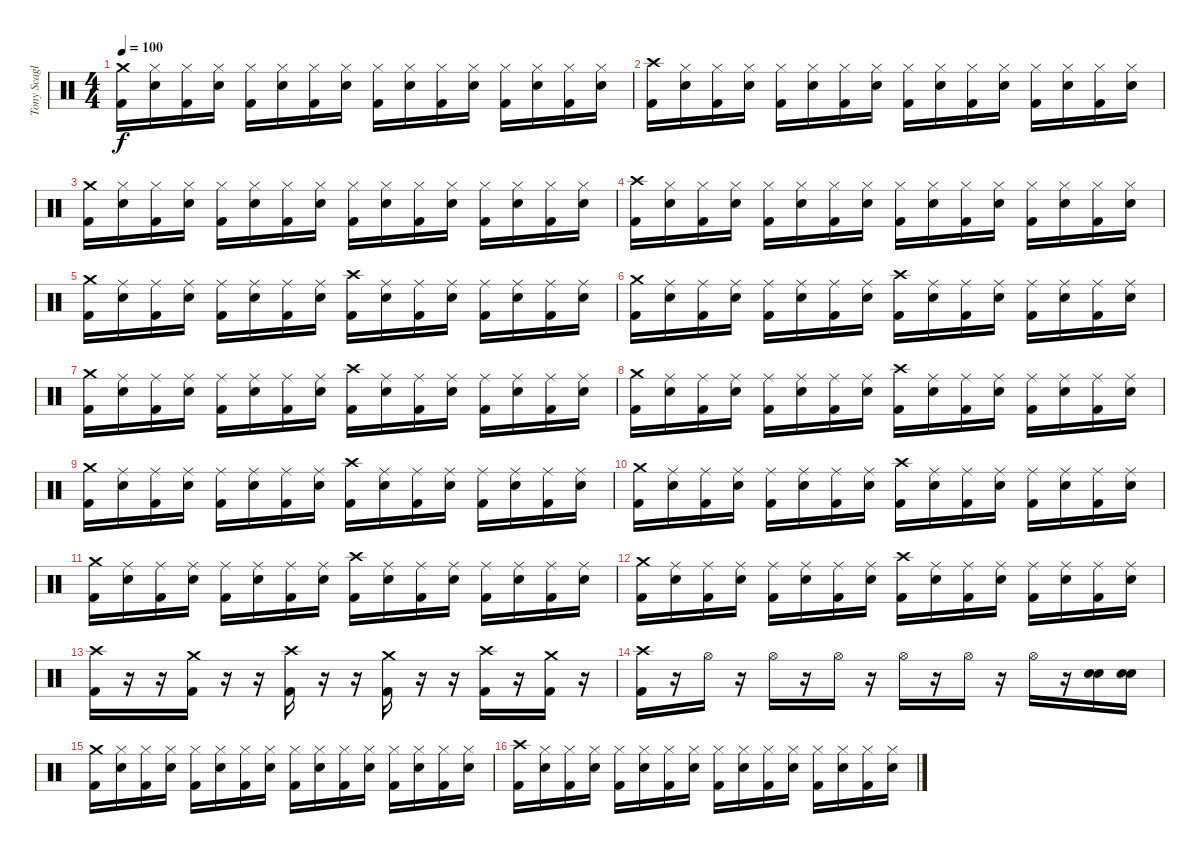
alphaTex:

\track ("Tony Scaglione" "Tony Scagl") {instrument percussion}
\staff {score}
\articulation defaults
\ts (4 4)
\tempo 100
\clef neutral
\ks c
("Crash medium (hit)" "Kick (hit) 2").16{dy f} ("Hi-Hat (closed)" "Snare (hit) 2").16 ("Hi-Hat (closed)" "Kick (hit) 2").16 ("Hi-Hat (closed)" "Snare (hit) 2").16 ("Hi-Hat (closed)" "Kick (hit) 2").16 ("Hi-Hat (closed)" "Snare (hit) 2").16 ("Hi-Hat (closed)" "Kick (hit) 2").16 ("Hi-Hat (closed)" "Snare (hit) 2").16 ("Hi-Hat (closed)" "Kick (hit) 2").16 ("Hi-Hat (closed)" "Snare (hit) 2").16 ("Hi-Hat (closed)" "Kick (hit) 2").16 ("Hi-Hat (closed)" "Snare (hit) 2").16 ("Hi-Hat (closed)" "Kick (hit) 2").16 ("Hi-Hat (closed)" "Snare (hit) 2").16 ("Hi-Hat (closed)" "Kick (hit) 2").16 ("Hi-Hat (closed)" "Snare (hit) 2").16 |
("Crash high (hit)" "Kick (hit) 2").16 ("Hi-Hat (closed)" "Snare (hit) 2").16 ("Hi-Hat (closed)" "Kick (hit) 2").16 ("Hi-Hat (closed)" "Snare (hit) 2").16 ("Hi-Hat (closed)" "Kick (hit) 2").16 ("Hi-Hat (closed)" "Snare (hit) 2").16 ("Hi-Hat (closed)" "Kick (hit) 2").16 ("Hi-Hat (closed)" "Snare (hit) 2").16 ("Hi-Hat (closed)" "Kick (hit) 2").16 ("Hi-Hat (closed)" "Snare (hit) 2").16 ("Hi-Hat (closed)" "Kick (hit) 2").16 ("Hi-Hat (closed)" "Snare (hit) 2").16 ("Hi-Hat (closed)" "Kick (hit) 2").16 ("Hi-Hat (closed)" "Snare (hit) 2").16 ("Hi-Hat (closed)" "Kick (hit) 2").16 ("Hi-Hat (closed)" "Snare (hit) 2").16 |
("Crash medium (hit)" "Kick (hit) 2").16 ("Hi-Hat (closed)" "Snare (hit) 2").16 ("Hi-Hat (closed)" "Kick (hit) 2").16 ("Hi-Hat (closed)" "Snare (hit) 2").16 ("Hi-Hat (closed)" "Kick (hit) 2").16 ("Hi-Hat (closed)" "Snare (hit) 2").16 ("Hi-Hat (closed)" "Kick (hit) 2").16 ("Hi-Hat (closed)" "Snare (hit) 2").16 ("Hi-Hat (closed)" "Kick (hit) 2").16 ("Hi-Hat (closed)" "Snare (hit) 2").16 ("Hi-Hat (closed)" "Kick (hit) 2").16 ("Hi-Hat (closed)" "Snare (hit) 2").16 ("Hi-Hat (closed)" "Kick (hit) 2").16 ("Hi-Hat (closed)" "Snare (hit) 2").16 ("Hi-Hat (closed)" "Kick (hit) 2").16 ("Hi-Hat (closed)" "Snare (hit) 2").16 |
("Crash high (hit)" "Kick (hit) 2").16 ("Hi-Hat (closed)" "Snare (hit) 2").16 ("Hi-Hat (closed)" "Kick (hit) 2").16 ("Hi-Hat (closed)" "Snare (hit) 2").16 ("Hi-Hat (closed)" "Kick (hit) 2").16 ("Hi-Hat (closed)" "Snare (hit) 2").16 ("Hi-Hat (closed)" "Kick (hit) 2").16 ("Hi-Hat (closed)" "Snare (hit) 2").16 ("Hi-Hat (closed)" "Kick (hit) 2").16 ("Hi-Hat (closed)" "Snare (hit) 2").16 ("Hi-Hat (closed)" "Kick (hit) 2").16 ("Hi-Hat (closed)" "Snare (hit) 2").16 ("Hi-Hat (closed)" "Kick (hit) 2").16 ("Hi-Hat (closed)" "Snare (hit) 2").16 ("Hi-Hat (closed)" "Kick (hit) 2").16 ("Hi-Hat (closed)" "Snare (hit) 2").16 |
("Crash medium (hit)" "Kick (hit) 2").16 ("Ride (middle)" "Snare (hit) 2").16 ("Ride (middle)" "Kick (hit) 2").16 ("Ride (middle)" "Snare (hit) 2").16 ("Ride (middle)" "Kick (hit) 2").16 ("Ride (middle)" "Snare (hit) 2").16 ("Ride (middle)" "Kick (hit) 2").16 ("Ride (middle)" "Snare (hit) 2").16 ("Crash high (hit)" "Kick (hit) 2").16 ("Ride (middle)" "Snare (hit) 2").16 ("Ride (middle)" "Kick (hit) 2").16 ("Ride (middle)" "Snare (hit) 2").16 ("Ride (middle)" "Kick (hit) 2").16 ("Ride (middle)" "Snare (hit) 2").16 ("Ride (middle)" "Kick (hit) 2").16 ("Ride (middle)" "Snare (hit) 2").16 |
("Crash medium (hit)" "Kick (hit) 2").16 ("Ride (middle)" "Snare (hit) 2").16 ("Ride (middle)" "Kick (hit) 2").16 ("Ride (middle)" "Snare (hit) 2").16 ("Ride (middle)" "Kick (hit) 2").16 ("Ride (middle)" "Snare (hit) 2").16 ("Ride (middle)" "Kick (hit) 2").16 ("Ride (middle)" "Snare (hit) 2").16 ("Crash high (hit)" "Kick (hit) 2").16 ("Ride (middle)" "Snare (hit) 2").16 ("Ride (middle)" "Kick (hit) 2").16 ("Ride (middle)" "Snare (hit) 2").16 ("Ride (middle)" "Kick (hit) 2").16 ("Ride (middle)" "Snare (hit) 2").16 ("Ride (middle)" "Kick (hit) 2").16 ("Ride (middle)" "Snare (hit) 2").16 |
("Crash medium (hit)" "Kick (hit) 2").16 ("Ride (middle)" "Snare (hit) 2").16 ("Ride (middle)" "Kick (hit) 2").16 ("Ride (middle)" "Snare (hit) 2").16 ("Ride (middle)" "Kick (hit) 2").16 ("Ride (middle)" "Snare (hit) 2").16 ("Ride (middle)" "Kick (hit) 2").16 ("Ride (middle)" "Snare (hit) 2").16 ("Crash high (hit)" "Kick (hit) 2").16 ("Ride (middle)" "Snare (hit) 2").16 ("Ride (middle)" "Kick (hit) 2").16 ("Ride (middle)" "Snare (hit) 2").16 ("Ride (middle)" "Kick (hit) 2").16 ("Ride (middle)" "Snare (hit) 2").16 ("Ride (middle)" "Kick (hit) 2").16 ("Ride (middle)" "Snare (hit) 2").16 |
("Crash medium (hit)" "Kick (hit) 2").16 ("Ride (middle)" "Snare (hit) 2").16 ("Ride (middle)" "Kick (hit) 2").16 ("Ride (middle)" "Snare (hit) 2").16 ("Ride (middle)" "Kick (hit) 2").16 ("Ride (middle)" "Snare (hit) 2").16 ("Ride (middle)" "Kick (hit) 2").16 ("Ride (middle)" "Snare (hit) 2").16 ("Crash high (hit)" "Kick (hit) 2").16 ("Ride (middle)" "Snare (hit) 2").16 ("Ride (middle)" "Kick (hit) 2").16 ("Ride (middle)" "Snare (hit) 2").16 ("Ride (middle)" "Kick (hit) 2").16 ("Ride (middle)" "Snare (hit) 2").16 ("Ride (middle)" "Kick (hit) 2").16 ("Ride (middle)" "Snare (hit) 2").16 |
("Crash medium (hit)" "Kick (hit) 2").16 ("Ride (middle)" "Snare (hit) 2").16 ("Ride (middle)" "Kick (hit) 2").16 ("Ride (middle)" "Snare (hit) 2").16 ("Ride (middle)" "Kick (hit) 2").16 ("Ride (middle)" "Snare (hit) 2").16 ("Ride (middle)" "Kick (hit) 2").16 ("Ride (middle)" "Snare (hit) 2").16 ("Crash high (hit)" "Kick (hit) 2").16 ("Ride (middle)" "Snare (hit) 2").16 ("Ride (middle)" "Kick (hit) 2").16 ("Ride (middle)" "Snare (hit) 2").16 ("Ride (middle)" "Kick (hit) 2").16 ("Ride (middle)" "Snare (hit) 2").16 ("Ride (middle)" "Kick (hit) 2").16 ("Ride (middle)" "Snare (hit) 2").16 |
("Crash medium (hit)" "Kick (hit) 2").16 ("Ride (middle)" "Snare (hit) 2").16 ("Ride (middle)" "Kick (hit) 2").16 ("Ride (middle)" "Snare (hit) 2").16 ("Ride (middle)" "Kick (hit) 2").16 ("Ride (middle)" "Snare (hit) 2").16 ("Ride (middle)" "Kick (hit) 2").16 ("Ride (middle)" "Snare (hit) 2").16 ("Crash high (hit)" "Kick (hit) 2").16 ("Ride (middle)" "Snare (hit) 2").16 ("Ride (middle)" "Kick (hit) 2").16 ("Ride (middle)" "Snare (hit) 2").16 ("Ride (middle)" "Kick (hit) 2").16 ("Ride (middle)" "Snare (hit) 2").16 ("Ride (middle)" "Kick (hit) 2").16 ("Ride (middle)" "Snare (hit) 2").16 |
("Crash medium (hit)" "Kick (hit) 2").16 ("Ride (middle)" "Snare (hit) 2").16 ("Ride (middle)" "Kick (hit) 2").16 ("Ride (middle)" "Snare (hit) 2").16 ("Ride (middle)" "Kick (hit) 2").16 ("Ride (middle)" "Snare (hit) 2").16 ("Ride (middle)" "Kick (hit) 2").16 ("Ride (middle)" "Snare (hit) 2").16 ("Crash high (hit)" "Kick (hit) 2").16 ("Ride (middle)" "Snare (hit) 2").16 ("Ride (middle)" "Kick (hit) 2").16 ("Ride (middle)" "Snare (hit) 2").16 ("Ride (middle)" "Kick (hit) 2").16 ("Ride (middle)" "Snare (hit) 2").16 ("Ride (middle)" "Kick (hit) 2").16 ("Ride (middle)" "Snare (hit) 2").16 |
("Crash medium (hit)" "Kick (hit) 2").16 ("Ride (middle)" "Snare (hit) 2").16 ("Ride (middle)" "Kick (hit) 2").16 ("Ride (middle)" "Snare (hit) 2").16 ("Ride (middle)" "Kick (hit) 2").16 ("Ride (middle)" "Snare (hit) 2").16 ("Ride (middle)" "Kick (hit) 2").16 ("Ride (middle)" "Snare (hit) 2").16 ("Crash high (hit)" "Kick (hit) 2").16 ("Ride (middle)" "Snare (hit) 2").16 ("Ride (middle)" "Kick (hit) 2").16 ("Ride (middle)" "Snare (hit) 2").16 ("Ride (middle)" "Kick (hit) 2").16 ("Ride (middle)" "Snare (hit) 2").16 ("Ride (middle)" "Kick (hit) 2").16 ("Ride (middle)" "Snare (hit) 2").16 |
("Crash high (hit)" "Kick (hit) 2").16 r.16 r.16 ("Crash medium (hit)" "Kick (hit) 2").16 r.16 r.16 ("Crash high (hit)" "Kick (hit) 2").16 r.16 r.16 ("Crash medium (hit)" "Kick (hit) 2").16 r.16 r.16 ("Crash high (hit)" "Kick (hit) 2").16 r.16 ("Crash medium (hit)" "Kick (hit) 2").16 r.16 |
("Crash high (hit)" "Kick (hit) 2").16 r.16 "Hi-Hat (open)".16 r.16 "Hi-Hat (open)".16 r.16 "Hi-Hat (open)".16 r.16 "Hi-Hat (open)".16 r.16 "Hi-Hat (open)".16 r.16 "Hi-Hat (open)".16 r.16 ("Electric Snare (hit)" "Snare (hit) 2").16 ("Electric Snare (hit)" "Snare (hit) 2").16 |
("Crash medium (hit)" "Kick (hit) 2").16 ("Hi-Hat (closed)" "Snare (hit) 2").16 ("Hi-Hat (closed)" "Kick (hit) 2").16 ("Hi-Hat (closed)" "Snare (hit) 2").16 ("Hi-Hat (closed)" "Kick (hit) 2").16 ("Hi-Hat (closed)" "Snare (hit) 2").16 ("Hi-Hat (closed)" "Kick (hit) 2").16 ("Hi-Hat (closed)" "Snare (hit) 2").16 ("Hi-Hat (closed)" "Kick (hit) 2").16 ("Hi-Hat (closed)" "Snare (hit) 2").16 ("Hi-Hat (closed)" "Kick (hit) 2").16 ("Hi-Hat (closed)" "Snare (hit) 2").16 ("Hi-Hat (closed)" "Kick (hit) 2").16 ("Hi-Hat (closed)" "Snare (hit) 2").16 ("Hi-Hat (closed)" "Kick (hit) 2").16 ("Hi-Hat (closed)" "Snare (hit) 2").16 |
("Crash high (hit)" "Kick (hit) 2").16 ("Hi-Hat (closed)" "Snare (hit) 2").16 ("Hi-Hat (closed)" "Kick (hit) 2").16 ("Hi-Hat (closed)" "Snare (hit) 2").16 ("Hi-Hat (closed)" "Kick (hit) 2").16 ("Hi-Hat (closed)" "Snare (hit) 2").16 ("Hi-Hat (closed)" "Kick (hit) 2").16 ("Hi-Hat (closed)" "Snare (hit) 2").16 ("Hi-Hat (closed)" "Kick (hit) 2").16 ("Hi-Hat (closed)" "Snare (hit) 2").16 ("Hi-Hat (closed)" "Kick (hit) 2").16 ("Hi-Hat (closed)" "Snare (hit) 2").16 ("Hi-Hat (closed)" "Kick (hit) 2").16 ("Hi-Hat (closed)" "Snare (hit) 2").16 ("Hi-Hat (closed)" "Kick (hit) 2").16 ("Hi-Hat (closed)" "Snare (hit) 2").16
